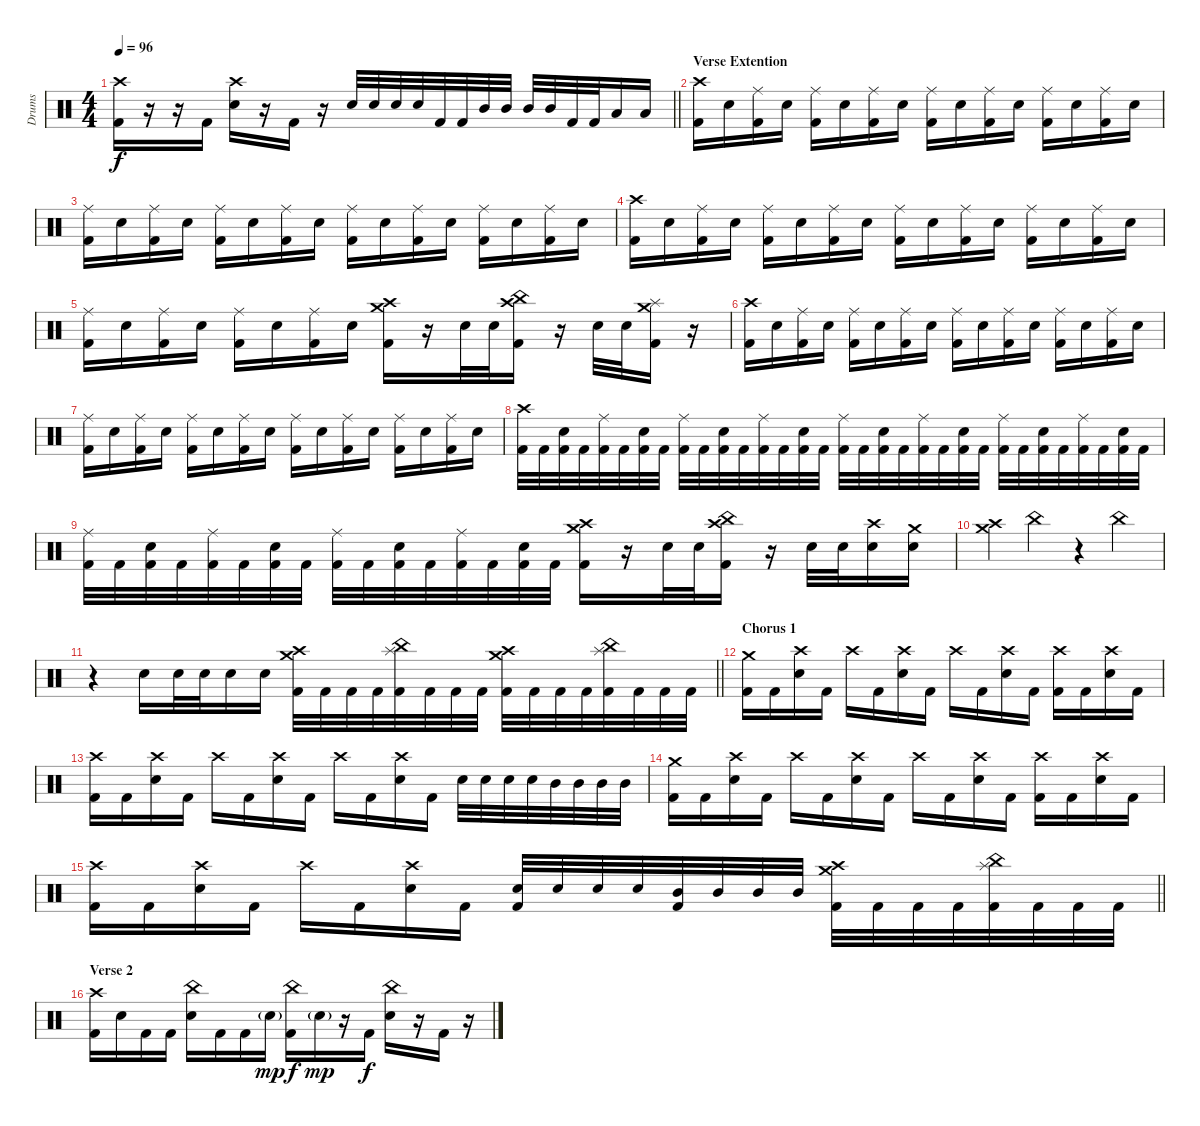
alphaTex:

\track ("Drums" "Drums") {instrument percussion}
\staff {score}
\articulation defaults
\ts (4 4)
\tempo 96
\clef neutral
\barLineRight lightlight
\ks c
("Crash high (hit)" "Kick (hit) 2").16{dy f} r.16 r.16 "Kick (hit) 2".16 ("Crash high (hit)" "Snare (hit) 2").16 r.16 "Kick (hit) 2".16 r.16 "Snare (hit) 2".32 "Snare (hit) 2".32 "Snare (hit) 2".32 "Snare (hit) 2".32 "Kick (hit) 2".32 "Kick (hit) 2".32 "Mid Tom (hit)".32 "Mid Tom (hit)".32 "Mid Tom (hit)".32 "Mid Tom (hit)".32 "Kick (hit) 2".32 "Kick (hit) 2".32 "Low Tom (hit)".16 "Low Tom (hit)".16 |
\section ("" "Verse Extention")
("Crash high (hit)" "Kick (hit) 2").16 "Snare (hit) 2".16 ("Ride (middle)" "Kick (hit) 2").16 "Snare (hit) 2".16 ("Ride (middle)" "Kick (hit) 2").16 "Snare (hit) 2".16 ("Ride (middle)" "Kick (hit) 2").16 "Snare (hit) 2".16 ("Ride (middle)" "Kick (hit) 2").16 "Snare (hit) 2".16 ("Ride (middle)" "Kick (hit) 2").16 "Snare (hit) 2".16 ("Ride (middle)" "Kick (hit) 2").16 "Snare (hit) 2".16 ("Ride (middle)" "Kick (hit) 2").16 "Snare (hit) 2".16 |
("Ride (middle)" "Kick (hit) 2").16 "Snare (hit) 2".16 ("Ride (middle)" "Kick (hit) 2").16 "Snare (hit) 2".16 ("Ride (middle)" "Kick (hit) 2").16 "Snare (hit) 2".16 ("Ride (middle)" "Kick (hit) 2").16 "Snare (hit) 2".16 ("Ride (middle)" "Kick (hit) 2").16 "Snare (hit) 2".16 ("Ride (middle)" "Kick (hit) 2").16 "Snare (hit) 2".16 ("Ride (middle)" "Kick (hit) 2").16 "Snare (hit) 2".16 ("Ride (middle)" "Kick (hit) 2").16 "Snare (hit) 2".16 |
("Crash high (hit)" "Kick (hit) 2").16 "Snare (hit) 2".16 ("Ride (middle)" "Kick (hit) 2").16 "Snare (hit) 2".16 ("Ride (middle)" "Kick (hit) 2").16 "Snare (hit) 2".16 ("Ride (middle)" "Kick (hit) 2").16 "Snare (hit) 2".16 ("Ride (middle)" "Kick (hit) 2").16 "Snare (hit) 2".16 ("Ride (middle)" "Kick (hit) 2").16 "Snare (hit) 2".16 ("Ride (middle)" "Kick (hit) 2").16 "Snare (hit) 2".16 ("Ride (middle)" "Kick (hit) 2").16 "Snare (hit) 2".16 |
("Ride (middle)" "Kick (hit) 2").16 "Snare (hit) 2".16 ("Ride (middle)" "Kick (hit) 2").16 "Snare (hit) 2".16 ("Ride (middle)" "Kick (hit) 2").16 "Snare (hit) 2".16 ("Ride (middle)" "Kick (hit) 2").16 "Snare (hit) 2".16 ("Crash medium (hit)" "Crash high (hit)" "Kick (hit) 2").16 r.16 "Snare (hit) 2".32 "Snare (hit) 2".32 ("China (hit)" "Crash high (hit)" "Kick (hit) 2").16 r.16 "Snare (hit) 2".32 "Snare (hit) 2".32 ("Crash medium (hit)" "Splash (hit)" "Kick (hit) 2").16 r.16 |
("Crash high (hit)" "Kick (hit) 2").16 "Snare (hit) 2".16 ("Ride (middle)" "Kick (hit) 2").16 "Snare (hit) 2".16 ("Ride (middle)" "Kick (hit) 2").16 "Snare (hit) 2".16 ("Ride (middle)" "Kick (hit) 2").16 "Snare (hit) 2".16 ("Ride (middle)" "Kick (hit) 2").16 "Snare (hit) 2".16 ("Ride (middle)" "Kick (hit) 2").16 "Snare (hit) 2".16 ("Ride (middle)" "Kick (hit) 2").16 "Snare (hit) 2".16 ("Ride (middle)" "Kick (hit) 2").16 "Snare (hit) 2".16 |
("Ride (middle)" "Kick (hit) 2").16 "Snare (hit) 2".16 ("Ride (middle)" "Kick (hit) 2").16 "Snare (hit) 2".16 ("Ride (middle)" "Kick (hit) 2").16 "Snare (hit) 2".16 ("Ride (middle)" "Kick (hit) 2").16 "Snare (hit) 2".16 ("Ride (middle)" "Kick (hit) 2").16 "Snare (hit) 2".16 ("Ride (middle)" "Kick (hit) 2").16 "Snare (hit) 2".16 ("Ride (middle)" "Kick (hit) 2").16 "Snare (hit) 2".16 ("Ride (middle)" "Kick (hit) 2").16 "Snare (hit) 2".16 |
("Crash high (hit)" "Kick (hit) 2").32 "Kick (hit) 2".32 ("Snare (hit) 2" "Kick (hit) 2").32 "Kick (hit) 2".32 ("Ride (middle)" "Kick (hit) 2").32 "Kick (hit) 2".32 ("Snare (hit) 2" "Kick (hit) 2").32 "Kick (hit) 2".32 ("Ride (middle)" "Kick (hit) 2").32 "Kick (hit) 2".32 ("Snare (hit) 2" "Kick (hit) 2").32 "Kick (hit) 2".32 ("Ride (middle)" "Kick (hit) 2").32 "Kick (hit) 2".32 ("Snare (hit) 2" "Kick (hit) 2").32 "Kick (hit) 2".32 ("Ride (middle)" "Kick (hit) 2").32 "Kick (hit) 2".32 ("Snare (hit) 2" "Kick (hit) 2").32 "Kick (hit) 2".32 ("Ride (middle)" "Kick (hit) 2").32 "Kick (hit) 2".32 ("Snare (hit) 2" "Kick (hit) 2").32 "Kick (hit) 2".32 ("Ride (middle)" "Kick (hit) 2").32 "Kick (hit) 2".32 ("Snare (hit) 2" "Kick (hit) 2").32 "Kick (hit) 2".32 ("Ride (middle)" "Kick (hit) 2").32 "Kick (hit) 2".32 ("Snare (hit) 2" "Kick (hit) 2").32 "Kick (hit) 2".32 |
("Ride (middle)" "Kick (hit) 2").32 "Kick (hit) 2".32 ("Snare (hit) 2" "Kick (hit) 2").32 "Kick (hit) 2".32 ("Ride (middle)" "Kick (hit) 2").32 "Kick (hit) 2".32 ("Snare (hit) 2" "Kick (hit) 2").32 "Kick (hit) 2".32 ("Ride (middle)" "Kick (hit) 2").32 "Kick (hit) 2".32 ("Snare (hit) 2" "Kick (hit) 2").32 "Kick (hit) 2".32 ("Ride (middle)" "Kick (hit) 2").32 "Kick (hit) 2".32 ("Snare (hit) 2" "Kick (hit) 2").32 "Kick (hit) 2".32 ("Crash medium (hit)" "Crash high (hit)" "Kick (hit) 2").16 r.16 "Snare (hit) 2".32 "Snare (hit) 2".32 ("China (hit)" "Crash high (hit)" "Kick (hit) 2").16 r.16 "Snare (hit) 2".32 "Snare (hit) 2".32 ("Crash high (hit)" "Snare (hit) 2").16 ("Crash medium (hit)" "Snare (hit) 2").16 |
("Crash high (hit)" "Crash medium (hit)").4 "China (hit)".4 r.4 "China (hit)".4 |
\barLineRight lightlight
r.4 "Snare (hit) 2".16 "Snare (hit) 2".32 "Snare (hit) 2".32 "Snare (hit) 2".16 "Snare (hit) 2".16 ("Crash high (hit)" "Crash medium (hit)" "Kick (hit) 2").32 "Kick (hit) 2".32 "Kick (hit) 2".32 "Kick (hit) 2".32 ("China (hit)" "Splash (hit)" "Kick (hit) 2").32 "Kick (hit) 2".32 "Kick (hit) 2".32 "Kick (hit) 2".32 ("Crash high (hit)" "Crash medium (hit)" "Kick (hit) 2").32 "Kick (hit) 2".32 "Kick (hit) 2".32 "Kick (hit) 2".32 ("China (hit)" "Splash (hit)" "Kick (hit) 2").32 "Kick (hit) 2".32 "Kick (hit) 2".32 "Kick (hit) 2".32 |
\section ("" "Chorus 1")
("Crash medium (hit)" "Kick (hit) 2").16 "Kick (hit) 2".16 ("Crash high (hit)" "Snare (hit) 2").16 "Kick (hit) 2".16 "Crash high (hit)".16 "Kick (hit) 2".16 ("Crash high (hit)" "Snare (hit) 2").16 "Kick (hit) 2".16 "Crash high (hit)".16 "Kick (hit) 2".16 ("Crash high (hit)" "Snare (hit) 2").16 "Kick (hit) 2".16 ("Crash high (hit)" "Kick (hit) 2").16 "Kick (hit) 2".16 ("Crash high (hit)" "Snare (hit) 2").16 "Kick (hit) 2".16 |
("Crash high (hit)" "Kick (hit) 2").16 "Kick (hit) 2".16 ("Crash high (hit)" "Snare (hit) 2").16 "Kick (hit) 2".16 "Crash high (hit)".16 "Kick (hit) 2".16 ("Crash high (hit)" "Snare (hit) 2").16 "Kick (hit) 2".16 "Crash high (hit)".16 "Kick (hit) 2".16 ("Crash high (hit)" "Snare (hit) 2").16 "Kick (hit) 2".16 "Snare (hit) 2".32 "Snare (hit) 2".32 "Snare (hit) 2".32 "Snare (hit) 2".32 "Mid Tom (hit)".32 "Mid Tom (hit)".32 "Mid Tom (hit)".32 "Mid Tom (hit)".32 |
("Crash medium (hit)" "Kick (hit) 2").16 "Kick (hit) 2".16 ("Crash high (hit)" "Snare (hit) 2").16 "Kick (hit) 2".16 "Crash high (hit)".16 "Kick (hit) 2".16 ("Crash high (hit)" "Snare (hit) 2").16 "Kick (hit) 2".16 "Crash high (hit)".16 "Kick (hit) 2".16 ("Crash high (hit)" "Snare (hit) 2").16 "Kick (hit) 2".16 ("Crash high (hit)" "Kick (hit) 2").16 "Kick (hit) 2".16 ("Crash high (hit)" "Snare (hit) 2").16 "Kick (hit) 2".16 |
\barLineRight lightlight
("Crash high (hit)" "Kick (hit) 2").16 "Kick (hit) 2".16 ("Crash high (hit)" "Snare (hit) 2").16 "Kick (hit) 2".16 "Crash high (hit)".16 "Kick (hit) 2".16 ("Crash high (hit)" "Snare (hit) 2").16 "Kick (hit) 2".16 ("Snare (hit) 2" "Kick (hit) 2").32 "Snare (hit) 2".32 "Snare (hit) 2".32 "Snare (hit) 2".32 ("Mid Tom (hit)" "Kick (hit) 2").32 "Mid Tom (hit)".32 "Mid Tom (hit)".32 "Mid Tom (hit)".32 ("Crash high (hit)" "Crash medium (hit)" "Kick (hit) 2").32 "Kick (hit) 2".32 "Kick (hit) 2".32 "Kick (hit) 2".32 ("China (hit)" "Splash (hit)" "Kick (hit) 2").32 "Kick (hit) 2".32 "Kick (hit) 2".32 "Kick (hit) 2".32 |
\section ("" "Verse 2")
("Crash high (hit)" "Kick (hit) 2").16 "Snare (hit) 2".16 "Kick (hit) 2".16 "Kick (hit) 2".16 ("China (hit)" "Snare (hit) 2").16 "Kick (hit) 2".16 "Kick (hit) 2".16 "Snare (hit) 2"{g}.16{dy mp} ("China (hit)" "Kick (hit) 2").16{dy f} "Snare (hit) 2"{g}.16{dy mp} r.16 "Kick (hit) 2".16{dy f} ("China (hit)" "Snare (hit) 2").16 r.16 "Kick (hit) 2".16 r.16
